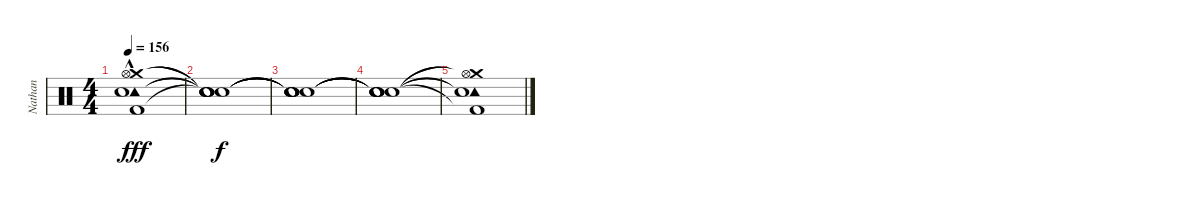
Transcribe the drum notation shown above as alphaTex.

\track ("Nathan" "Nathan") {instrument percussion}
\staff {score}
\articulation defaults
\ts (4 4)
\tempo 156
\clef neutral
\ks c
("Crash medium (hit)"{hac} "Hi-Hat (open)"{hac} "Tambourine (hit)"{hac} "Snare (hit) 2"{hac} "Kick (hit) 2"{hac}).1{dy fff} |
("Snare (hit)"{t} "Snare (hit)"{t} "Snare (hit)"{t} "Snare (hit)"{t} "Snare (hit)"{t}).1{dy f} |
("Snare (hit)"{t} "Snare (hit)"{t} "Snare (hit)"{t} "Snare (hit)"{t} "Snare (hit)"{t}).1 |
("Snare (hit)"{t} "Snare (hit)"{t} "Snare (hit)"{t} "Snare (hit)"{t} "Snare (hit)"{t}).1 |
("Crash medium (hit)"{t} "Hi-Hat (open)"{t} "Tambourine (hit)"{t} "Snare (hit) 2"{t} "Kick (hit) 2"{t}).1
